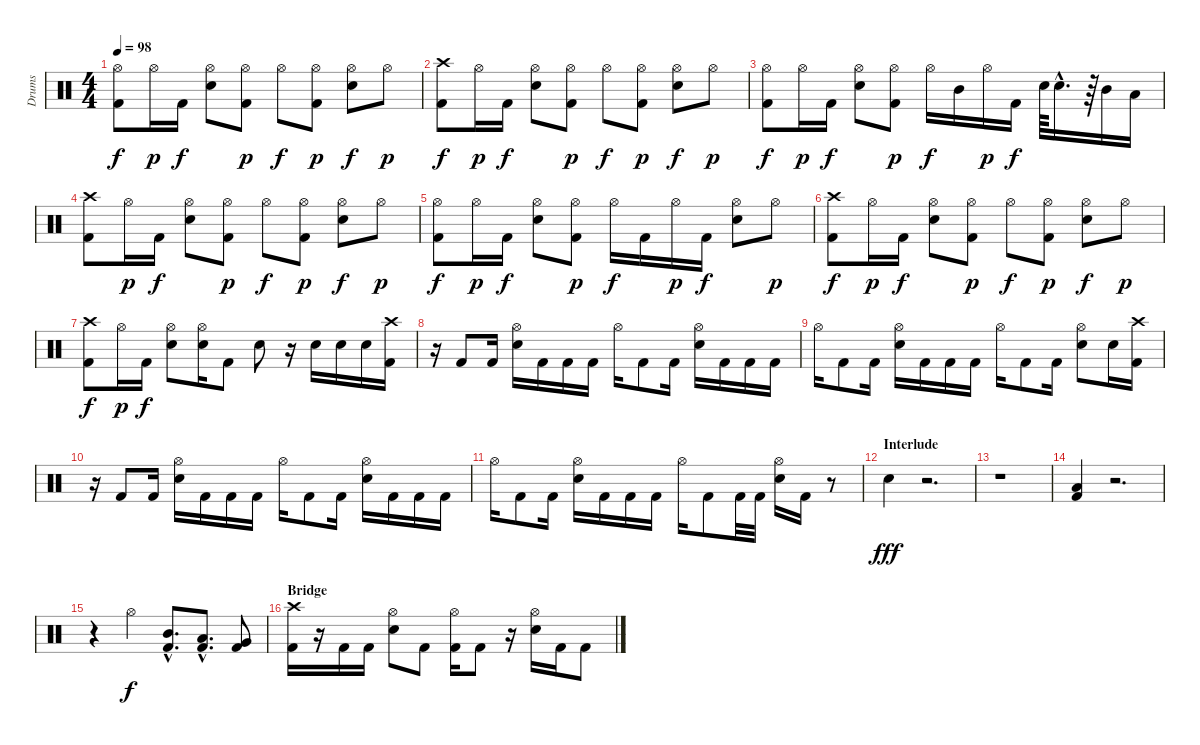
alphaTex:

\track ("Drums" "Drums") {instrument percussion}
\staff {score}
\articulation defaults
\ts (4 4)
\tempo 98
\clef neutral
\ks c
("Hi-Hat (open)" "Kick (hit) 2").8{dy f} "Hi-Hat (open)".16{dy p} "Kick (hit) 2".16{dy f} ("Hi-Hat (open)" "Electric Snare (hit)").8 ("Hi-Hat (open)" "Kick (hit) 2").8{dy p} "Hi-Hat (open)".8{dy f} ("Hi-Hat (open)" "Kick (hit) 2").8{dy p} ("Hi-Hat (open)" "Electric Snare (hit)").8{dy f} "Hi-Hat (open)".8{dy p} |
("Crash high (hit)" "Kick (hit) 2").8{dy f} "Hi-Hat (open)".16{dy p} "Kick (hit) 2".16{dy f} ("Hi-Hat (open)" "Electric Snare (hit)").8 ("Hi-Hat (open)" "Kick (hit) 2").8{dy p} "Hi-Hat (open)".8{dy f} ("Hi-Hat (open)" "Kick (hit) 2").8{dy p} ("Hi-Hat (open)" "Electric Snare (hit)").8{dy f} "Hi-Hat (open)".8{dy p} |
("Hi-Hat (open)" "Kick (hit) 2").8{dy f} "Hi-Hat (open)".16{dy p} "Kick (hit) 2".16{dy f} ("Hi-Hat (open)" "Electric Snare (hit)").8 ("Hi-Hat (open)" "Kick (hit) 2").8{dy p} "Hi-Hat (open)".16{dy f} "Mid Tom (hit)".16 "Hi-Hat (open)".16{dy p} "Kick (hit) 2".16{dy f} "Electric Snare (hit)".64 "Electric Snare (hit)"{hac}.16{d} r.64 "Mid Tom (hit)".16 "Low Tom (hit)".16 |
("Crash high (hit)" "Kick (hit) 2").8 "Hi-Hat (open)".16{dy p} "Kick (hit) 2".16{dy f} ("Hi-Hat (open)" "Electric Snare (hit)").8 ("Hi-Hat (open)" "Kick (hit) 2").8{dy p} "Hi-Hat (open)".8{dy f} ("Hi-Hat (open)" "Kick (hit) 2").8{dy p} ("Hi-Hat (open)" "Electric Snare (hit)").8{dy f} "Hi-Hat (open)".8{dy p} |
("Hi-Hat (open)" "Kick (hit) 2").8{dy f} "Hi-Hat (open)".16{dy p} "Kick (hit) 2".16{dy f} ("Hi-Hat (open)" "Electric Snare (hit)").8 ("Hi-Hat (open)" "Kick (hit) 2").8{dy p} "Hi-Hat (open)".16{dy f} "Kick (hit) 2".16 "Hi-Hat (open)".16{dy p} "Kick (hit) 2".16{dy f} ("Hi-Hat (open)" "Electric Snare (hit)").8 "Hi-Hat (open)".8{dy p} |
("Crash high (hit)" "Kick (hit) 2").8{dy f} "Hi-Hat (open)".16{dy p} "Kick (hit) 2".16{dy f} ("Hi-Hat (open)" "Electric Snare (hit)").8 ("Hi-Hat (open)" "Kick (hit) 2").8{dy p} "Hi-Hat (open)".8{dy f} ("Hi-Hat (open)" "Kick (hit) 2").8{dy p} ("Hi-Hat (open)" "Electric Snare (hit)").8{dy f} "Hi-Hat (open)".8{dy p} |
("Crash high (hit)" "Kick (hit) 2").8{dy f} "Hi-Hat (open)".16{dy p} "Kick (hit) 2".16{dy f} ("Hi-Hat (open)" "Electric Snare (hit)").8 ("Hi-Hat (open)" "Electric Snare (hit)").16 "Kick (hit) 2".8 "Electric Snare (hit)".8 r.16 "Electric Snare (hit)".16 "Electric Snare (hit)".16 "Electric Snare (hit)".16 ("Crash high (hit)" "Kick (hit) 2").16 |
r.16 "Kick (hit) 2".8 "Kick (hit) 2".16 ("Hi-Hat (open)" "Electric Snare (hit)").16 "Kick (hit) 2".16 "Kick (hit) 2".16 "Kick (hit) 2".16 "Hi-Hat (open)".16 "Kick (hit) 2".8 "Kick (hit) 2".16 ("Hi-Hat (open)" "Electric Snare (hit)").16 "Kick (hit) 2".16 "Kick (hit) 2".16 "Kick (hit) 2".16 |
"Hi-Hat (open)".16 "Kick (hit) 2".8 "Kick (hit) 2".16 ("Hi-Hat (open)" "Electric Snare (hit)").16 "Kick (hit) 2".16 "Kick (hit) 2".16 "Kick (hit) 2".16 "Hi-Hat (open)".16 "Kick (hit) 2".8 "Kick (hit) 2".16 ("Hi-Hat (open)" "Electric Snare (hit)").8 "Electric Snare (hit)".16 ("Crash high (hit)" "Kick (hit) 2").16 |
r.16 "Kick (hit) 2".8 "Kick (hit) 2".16 ("Hi-Hat (open)" "Electric Snare (hit)").16 "Kick (hit) 2".16 "Kick (hit) 2".16 "Kick (hit) 2".16 "Hi-Hat (open)".16 "Kick (hit) 2".8 "Kick (hit) 2".16 ("Hi-Hat (open)" "Electric Snare (hit)").16 "Kick (hit) 2".16 "Kick (hit) 2".16 "Kick (hit) 2".16 |
"Hi-Hat (open)".16 "Kick (hit) 2".8 "Kick (hit) 2".16 ("Hi-Hat (open)" "Electric Snare (hit)").16 "Kick (hit) 2".16 "Kick (hit) 2".16 "Kick (hit) 2".16 "Hi-Hat (open)".16 "Kick (hit) 2".8 "Kick (hit) 2".32 "Kick (hit) 2".32 ("Hi-Hat (open)" "Electric Snare (hit)").16 "Kick (hit) 2".16 r.8 |
\section ("" "Interlude")
"Electric Snare (hit)".4{dy fff} r.2{d} |
r.1 |
("Low Tom (hit)" "Kick (hit) 2").4 r.2{d} |
r.4 "Hi-Hat (open)".4{dy f} ("Mid Tom (hit)"{hac} "Kick (hit) 2"{hac}).8{d} ("Low Tom (hit)"{hac} "Kick (hit) 2"{hac}).8{d} ("Very Low Tom (hit)" "Kick (hit) 2").8 |
\section ("" "Bridge")
("Crash high (hit)" "Kick (hit) 2").16 r.16 "Kick (hit) 2".16 "Kick (hit) 2".16 ("Hi-Hat (open)" "Electric Snare (hit)").8 "Kick (hit) 2".8 ("Hi-Hat (open)" "Kick (hit) 2").16 "Kick (hit) 2".8 r.16 ("Hi-Hat (open)" "Electric Snare (hit)").16 "Kick (hit) 2".16 "Kick (hit) 2".8
